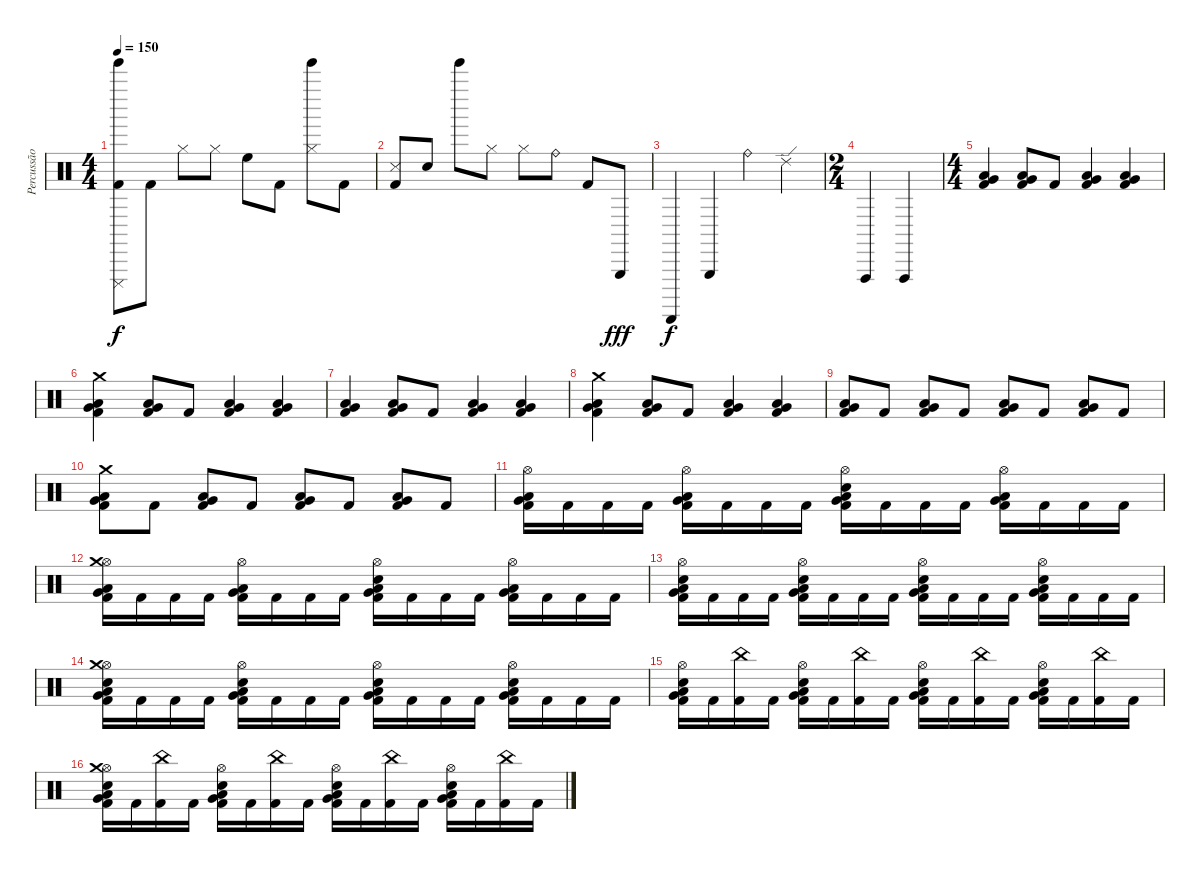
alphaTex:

\track ("Percussão" "Percussão") {instrument percussion}
\staff {score}
\articulation defaults
\ts (4 4)
\tempo 150
\clef neutral
\ks c
("Tinkle Bell (hit)" "Cuica (mute)" "Kick (hit) 2").8{dy f} "Kick (hit) 2".8 "Hi-Hat (closed)".8 "Hi-Hat (closed)".8 "High Floor Tom (hit)".8 "Kick (hit) 2".8 ("Tinkle Bell (hit)" "Hi-Hat (closed)").8 "Kick (hit) 2".8 |
("Snare (side stick) 3" "Kick (hit) 2").8 "Snare (hit) 2".8 "Tinkle Bell (hit)".8 "Hi-Hat (closed)".8 "Hi-Hat (closed)".8 "Ride (bell)".8 "Kick (hit) 2".8 "Triangle (hit)".8{dy fff} |
"Guiro (scrap-return)".4{dy f} "Triangle (hit)".4 "Ride (bell)".4 "Ride (edge) 2".4 |
\ts (2 4)
"Vibraslap (hit)".4 "Vibraslap (hit)".4 |
\ts (4 4)
("Low Tom (hit)" "Very Low Tom (hit)" "Kick (hit) 2").4 ("Low Tom (hit)" "Very Low Tom (hit)" "Kick (hit) 2").8 "Kick (hit) 2".8 ("Low Tom (hit)" "Very Low Tom (hit)" "Kick (hit) 2").4 ("Low Tom (hit)" "Very Low Tom (hit)" "Kick (hit) 2").4 |
("Crash medium (hit)" "Low Tom (hit)" "Very Low Tom (hit)" "Kick (hit) 2").4 ("Low Tom (hit)" "Very Low Tom (hit)" "Kick (hit) 2").8 "Kick (hit) 2".8 ("Low Tom (hit)" "Very Low Tom (hit)" "Kick (hit) 2").4 ("Low Tom (hit)" "Very Low Tom (hit)" "Kick (hit) 2").4 |
("Low Tom (hit)" "Very Low Tom (hit)" "Kick (hit) 2").4 ("Low Tom (hit)" "Very Low Tom (hit)" "Kick (hit) 2").8 "Kick (hit) 2".8 ("Low Tom (hit)" "Very Low Tom (hit)" "Kick (hit) 2").4 ("Low Tom (hit)" "Very Low Tom (hit)" "Kick (hit) 2").4 |
("Crash medium (hit)" "Low Tom (hit)" "Very Low Tom (hit)" "Kick (hit) 2").4 ("Low Tom (hit)" "Very Low Tom (hit)" "Kick (hit) 2").8 "Kick (hit) 2".8 ("Low Tom (hit)" "Very Low Tom (hit)" "Kick (hit) 2").4 ("Low Tom (hit)" "Very Low Tom (hit)" "Kick (hit) 2").4 |
("Low Tom (hit)" "Very Low Tom (hit)" "Kick (hit) 2").8 "Kick (hit) 2".8 ("Low Tom (hit)" "Very Low Tom (hit)" "Kick (hit) 2").8 "Kick (hit) 2".8 ("Low Tom (hit)" "Very Low Tom (hit)" "Kick (hit) 2").8 "Kick (hit) 2".8 ("Low Tom (hit)" "Very Low Tom (hit)" "Kick (hit) 2").8 "Kick (hit) 2".8 |
("Crash medium (hit)" "Low Tom (hit)" "Very Low Tom (hit)" "Kick (hit) 2").8 "Kick (hit) 2".8 ("Low Tom (hit)" "Very Low Tom (hit)" "Kick (hit) 2").8 "Kick (hit) 2".8 ("Low Tom (hit)" "Very Low Tom (hit)" "Kick (hit) 2").8 "Kick (hit) 2".8 ("Low Tom (hit)" "Very Low Tom (hit)" "Kick (hit) 2").8 "Kick (hit) 2".8 |
("Hi-Hat (open)" "Low Tom (hit)" "Very Low Tom (hit)" "Kick (hit) 2").16 "Kick (hit) 2".16 "Kick (hit) 2".16 "Kick (hit) 2".16 ("Hi-Hat (open)" "Low Tom (hit)" "Very Low Tom (hit)" "Kick (hit) 2").16 "Kick (hit) 2".16 "Kick (hit) 2".16 "Kick (hit) 2".16 ("Hi-Hat (open)" "Low Tom (hit)" "Very Low Tom (hit)" "Snare (hit) 2" "Kick (hit) 2").16 "Kick (hit) 2".16 "Kick (hit) 2".16 "Kick (hit) 2".16 ("Hi-Hat (open)" "Low Tom (hit)" "Very Low Tom (hit)" "Kick (hit) 2").16 "Kick (hit) 2".16 "Kick (hit) 2".16 "Kick (hit) 2".16 |
("Hi-Hat (open)" "Low Tom (hit)" "Very Low Tom (hit)" "Crash medium (hit)" "Kick (hit) 2").16 "Kick (hit) 2".16 "Kick (hit) 2".16 "Kick (hit) 2".16 ("Hi-Hat (open)" "Low Tom (hit)" "Very Low Tom (hit)" "Kick (hit) 2").16 "Kick (hit) 2".16 "Kick (hit) 2".16 "Kick (hit) 2".16 ("Hi-Hat (open)" "Low Tom (hit)" "Very Low Tom (hit)" "Snare (hit) 2" "Kick (hit) 2").16 "Kick (hit) 2".16 "Kick (hit) 2".16 "Kick (hit) 2".16 ("Hi-Hat (open)" "Low Tom (hit)" "Very Low Tom (hit)" "Kick (hit) 2").16 "Kick (hit) 2".16 "Kick (hit) 2".16 "Kick (hit) 2".16 |
("Hi-Hat (open)" "Low Tom (hit)" "Very Low Tom (hit)" "Snare (hit) 2" "Kick (hit) 2").16 "Kick (hit) 2".16 "Kick (hit) 2".16 "Kick (hit) 2".16 ("Hi-Hat (open)" "Low Tom (hit)" "Very Low Tom (hit)" "Snare (hit) 2" "Kick (hit) 2").16 "Kick (hit) 2".16 "Kick (hit) 2".16 "Kick (hit) 2".16 ("Hi-Hat (open)" "Low Tom (hit)" "Very Low Tom (hit)" "Snare (hit) 2" "Kick (hit) 2").16 "Kick (hit) 2".16 "Kick (hit) 2".16 "Kick (hit) 2".16 ("Hi-Hat (open)" "Low Tom (hit)" "Very Low Tom (hit)" "Snare (hit) 2" "Kick (hit) 2").16 "Kick (hit) 2".16 "Kick (hit) 2".16 "Kick (hit) 2".16 |
("Hi-Hat (open)" "Low Tom (hit)" "Very Low Tom (hit)" "Crash medium (hit)" "Snare (hit) 2" "Kick (hit) 2").16 "Kick (hit) 2".16 "Kick (hit) 2".16 "Kick (hit) 2".16 ("Hi-Hat (open)" "Low Tom (hit)" "Very Low Tom (hit)" "Snare (hit) 2" "Kick (hit) 2").16 "Kick (hit) 2".16 "Kick (hit) 2".16 "Kick (hit) 2".16 ("Hi-Hat (open)" "Low Tom (hit)" "Very Low Tom (hit)" "Snare (hit) 2" "Kick (hit) 2").16 "Kick (hit) 2".16 "Kick (hit) 2".16 "Kick (hit) 2".16 ("Hi-Hat (open)" "Low Tom (hit)" "Very Low Tom (hit)" "Snare (hit) 2" "Kick (hit) 2").16 "Kick (hit) 2".16 "Kick (hit) 2".16 "Kick (hit) 2".16 |
("Hi-Hat (open)" "Low Tom (hit)" "Very Low Tom (hit)" "Snare (hit) 2" "Kick (hit) 2").16 "Kick (hit) 2".16 ("China (hit)" "Kick (hit) 2").16 "Kick (hit) 2".16 ("Hi-Hat (open)" "Low Tom (hit)" "Very Low Tom (hit)" "Snare (hit) 2" "Kick (hit) 2").16 "Kick (hit) 2".16 ("China (hit)" "Kick (hit) 2").16 "Kick (hit) 2".16 ("Hi-Hat (open)" "Low Tom (hit)" "Very Low Tom (hit)" "Snare (hit) 2" "Kick (hit) 2").16 "Kick (hit) 2".16 ("China (hit)" "Kick (hit) 2").16 "Kick (hit) 2".16 ("Hi-Hat (open)" "Low Tom (hit)" "Very Low Tom (hit)" "Snare (hit) 2" "Kick (hit) 2").16 "Kick (hit) 2".16 ("China (hit)" "Kick (hit) 2").16 "Kick (hit) 2".16 |
("Hi-Hat (open)" "Low Tom (hit)" "Very Low Tom (hit)" "Crash medium (hit)" "Snare (hit) 2" "Kick (hit) 2").16 "Kick (hit) 2".16 ("China (hit)" "Kick (hit) 2").16 "Kick (hit) 2".16 ("Hi-Hat (open)" "Low Tom (hit)" "Very Low Tom (hit)" "Snare (hit) 2" "Kick (hit) 2").16 "Kick (hit) 2".16 ("China (hit)" "Kick (hit) 2").16 "Kick (hit) 2".16 ("Hi-Hat (open)" "Low Tom (hit)" "Very Low Tom (hit)" "Snare (hit) 2" "Kick (hit) 2").16 "Kick (hit) 2".16 ("China (hit)" "Kick (hit) 2").16 "Kick (hit) 2".16 ("Hi-Hat (open)" "Low Tom (hit)" "Very Low Tom (hit)" "Snare (hit) 2" "Kick (hit) 2").16 "Kick (hit) 2".16 ("China (hit)" "Kick (hit) 2").16 "Kick (hit) 2".16
